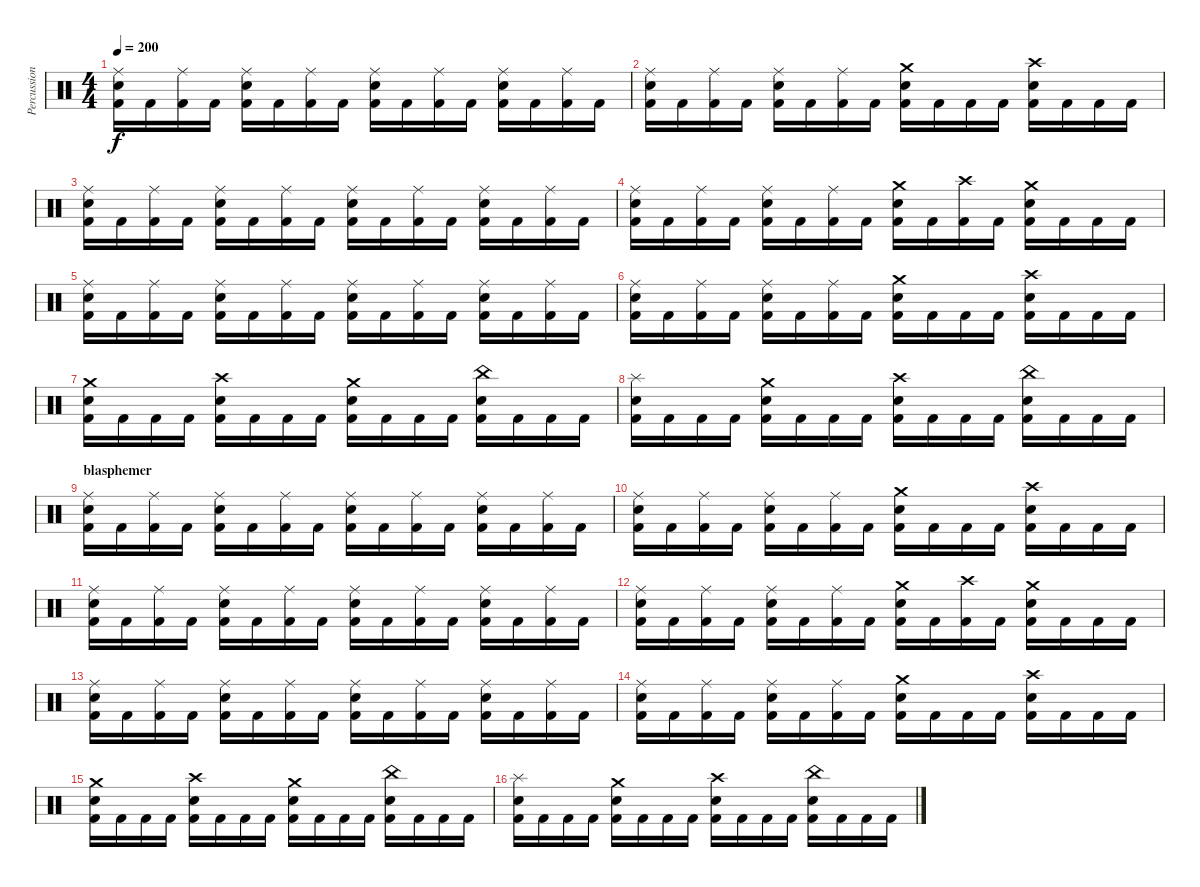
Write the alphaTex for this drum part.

\track ("Percussions" "Percussion") {instrument percussion}
\staff {score}
\articulation defaults
\ts (4 4)
\tempo 200
\clef neutral
\ks c
("Ride (middle)" "Electric Snare (hit)" "Kick (hit) 2").16{dy f} "Kick (hit) 2".16 ("Ride (middle)" "Kick (hit) 2").16 "Kick (hit) 2".16 ("Ride (middle)" "Electric Snare (hit)" "Kick (hit) 2").16 "Kick (hit) 2".16 ("Ride (middle)" "Kick (hit) 2").16 "Kick (hit) 2".16 ("Ride (middle)" "Electric Snare (hit)" "Kick (hit) 2").16 "Kick (hit) 2".16 ("Ride (middle)" "Kick (hit) 2").16 "Kick (hit) 2".16 ("Ride (middle)" "Electric Snare (hit)" "Kick (hit) 2").16 "Kick (hit) 2".16 ("Ride (middle)" "Kick (hit) 2").16 "Kick (hit) 2".16 |
("Ride (middle)" "Electric Snare (hit)" "Kick (hit) 2").16 "Kick (hit) 2".16 ("Ride (middle)" "Kick (hit) 2").16 "Kick (hit) 2".16 ("Ride (middle)" "Electric Snare (hit)" "Kick (hit) 2").16 "Kick (hit) 2".16 ("Ride (middle)" "Kick (hit) 2").16 "Kick (hit) 2".16 ("Crash medium (hit)" "Electric Snare (hit)" "Kick (hit) 2").16 "Kick (hit) 2".16 "Kick (hit) 2".16 "Kick (hit) 2".16 ("Crash high (hit)" "Electric Snare (hit)" "Kick (hit) 2").16 "Kick (hit) 2".16 "Kick (hit) 2".16 "Kick (hit) 2".16 |
("Ride (middle)" "Electric Snare (hit)" "Kick (hit) 2").16 "Kick (hit) 2".16 ("Ride (middle)" "Kick (hit) 2").16 "Kick (hit) 2".16 ("Ride (middle)" "Electric Snare (hit)" "Kick (hit) 2").16 "Kick (hit) 2".16 ("Ride (middle)" "Kick (hit) 2").16 "Kick (hit) 2".16 ("Ride (middle)" "Electric Snare (hit)" "Kick (hit) 2").16 "Kick (hit) 2".16 ("Ride (middle)" "Kick (hit) 2").16 "Kick (hit) 2".16 ("Ride (middle)" "Electric Snare (hit)" "Kick (hit) 2").16 "Kick (hit) 2".16 ("Ride (middle)" "Kick (hit) 2").16 "Kick (hit) 2".16 |
("Ride (middle)" "Electric Snare (hit)" "Kick (hit) 2").16 "Kick (hit) 2".16 ("Ride (middle)" "Kick (hit) 2").16 "Kick (hit) 2".16 ("Ride (middle)" "Electric Snare (hit)" "Kick (hit) 2").16 "Kick (hit) 2".16 ("Ride (middle)" "Kick (hit) 2").16 "Kick (hit) 2".16 ("Crash medium (hit)" "Electric Snare (hit)" "Kick (hit) 2").16 "Kick (hit) 2".16 ("Crash high (hit)" "Kick (hit) 2").16 "Kick (hit) 2".16 ("Crash medium (hit)" "Electric Snare (hit)" "Kick (hit) 2").16 "Kick (hit) 2".16 "Kick (hit) 2".16 "Kick (hit) 2".16 |
("Ride (middle)" "Electric Snare (hit)" "Kick (hit) 2").16 "Kick (hit) 2".16 ("Ride (middle)" "Kick (hit) 2").16 "Kick (hit) 2".16 ("Ride (middle)" "Electric Snare (hit)" "Kick (hit) 2").16 "Kick (hit) 2".16 ("Ride (middle)" "Kick (hit) 2").16 "Kick (hit) 2".16 ("Ride (middle)" "Electric Snare (hit)" "Kick (hit) 2").16 "Kick (hit) 2".16 ("Ride (middle)" "Kick (hit) 2").16 "Kick (hit) 2".16 ("Ride (middle)" "Electric Snare (hit)" "Kick (hit) 2").16 "Kick (hit) 2".16 ("Ride (middle)" "Kick (hit) 2").16 "Kick (hit) 2".16 |
("Ride (middle)" "Electric Snare (hit)" "Kick (hit) 2").16 "Kick (hit) 2".16 ("Ride (middle)" "Kick (hit) 2").16 "Kick (hit) 2".16 ("Ride (middle)" "Electric Snare (hit)" "Kick (hit) 2").16 "Kick (hit) 2".16 ("Ride (middle)" "Kick (hit) 2").16 "Kick (hit) 2".16 ("Crash medium (hit)" "Electric Snare (hit)" "Kick (hit) 2").16 "Kick (hit) 2".16 "Kick (hit) 2".16 "Kick (hit) 2".16 ("Crash high (hit)" "Electric Snare (hit)" "Kick (hit) 2").16 "Kick (hit) 2".16 "Kick (hit) 2".16 "Kick (hit) 2".16 |
("Crash medium (hit)" "Electric Snare (hit)" "Kick (hit) 2").16 "Kick (hit) 2".16 "Kick (hit) 2".16 "Kick (hit) 2".16 ("Crash high (hit)" "Electric Snare (hit)" "Kick (hit) 2").16 "Kick (hit) 2".16 "Kick (hit) 2".16 "Kick (hit) 2".16 ("Crash medium (hit)" "Electric Snare (hit)" "Kick (hit) 2").16 "Kick (hit) 2".16 "Kick (hit) 2".16 "Kick (hit) 2".16 ("China (hit)" "Electric Snare (hit)" "Kick (hit) 2").16 "Kick (hit) 2".16 "Kick (hit) 2".16 "Kick (hit) 2".16 |
("Splash (hit)" "Electric Snare (hit)" "Kick (hit) 2").16 "Kick (hit) 2".16 "Kick (hit) 2".16 "Kick (hit) 2".16 ("Crash medium (hit)" "Electric Snare (hit)" "Kick (hit) 2").16 "Kick (hit) 2".16 "Kick (hit) 2".16 "Kick (hit) 2".16 ("Crash high (hit)" "Electric Snare (hit)" "Kick (hit) 2").16 "Kick (hit) 2".16 "Kick (hit) 2".16 "Kick (hit) 2".16 ("China (hit)" "Electric Snare (hit)" "Kick (hit) 2").16 "Kick (hit) 2".16 "Kick (hit) 2".16 "Kick (hit) 2".16 |
\section ("" "blasphemer")
("Ride (middle)" "Electric Snare (hit)" "Kick (hit) 2").16 "Kick (hit) 2".16 ("Ride (middle)" "Kick (hit) 2").16 "Kick (hit) 2".16 ("Ride (middle)" "Electric Snare (hit)" "Kick (hit) 2").16 "Kick (hit) 2".16 ("Ride (middle)" "Kick (hit) 2").16 "Kick (hit) 2".16 ("Ride (middle)" "Electric Snare (hit)" "Kick (hit) 2").16 "Kick (hit) 2".16 ("Ride (middle)" "Kick (hit) 2").16 "Kick (hit) 2".16 ("Ride (middle)" "Electric Snare (hit)" "Kick (hit) 2").16 "Kick (hit) 2".16 ("Ride (middle)" "Kick (hit) 2").16 "Kick (hit) 2".16 |
("Ride (middle)" "Electric Snare (hit)" "Kick (hit) 2").16 "Kick (hit) 2".16 ("Ride (middle)" "Kick (hit) 2").16 "Kick (hit) 2".16 ("Ride (middle)" "Electric Snare (hit)" "Kick (hit) 2").16 "Kick (hit) 2".16 ("Ride (middle)" "Kick (hit) 2").16 "Kick (hit) 2".16 ("Crash medium (hit)" "Electric Snare (hit)" "Kick (hit) 2").16 "Kick (hit) 2".16 "Kick (hit) 2".16 "Kick (hit) 2".16 ("Crash high (hit)" "Electric Snare (hit)" "Kick (hit) 2").16 "Kick (hit) 2".16 "Kick (hit) 2".16 "Kick (hit) 2".16 |
("Ride (middle)" "Electric Snare (hit)" "Kick (hit) 2").16 "Kick (hit) 2".16 ("Ride (middle)" "Kick (hit) 2").16 "Kick (hit) 2".16 ("Ride (middle)" "Electric Snare (hit)" "Kick (hit) 2").16 "Kick (hit) 2".16 ("Ride (middle)" "Kick (hit) 2").16 "Kick (hit) 2".16 ("Ride (middle)" "Electric Snare (hit)" "Kick (hit) 2").16 "Kick (hit) 2".16 ("Ride (middle)" "Kick (hit) 2").16 "Kick (hit) 2".16 ("Ride (middle)" "Electric Snare (hit)" "Kick (hit) 2").16 "Kick (hit) 2".16 ("Ride (middle)" "Kick (hit) 2").16 "Kick (hit) 2".16 |
("Ride (middle)" "Electric Snare (hit)" "Kick (hit) 2").16 "Kick (hit) 2".16 ("Ride (middle)" "Kick (hit) 2").16 "Kick (hit) 2".16 ("Ride (middle)" "Electric Snare (hit)" "Kick (hit) 2").16 "Kick (hit) 2".16 ("Ride (middle)" "Kick (hit) 2").16 "Kick (hit) 2".16 ("Crash medium (hit)" "Electric Snare (hit)" "Kick (hit) 2").16 "Kick (hit) 2".16 ("Crash high (hit)" "Kick (hit) 2").16 "Kick (hit) 2".16 ("Crash medium (hit)" "Electric Snare (hit)" "Kick (hit) 2").16 "Kick (hit) 2".16 "Kick (hit) 2".16 "Kick (hit) 2".16 |
("Ride (middle)" "Electric Snare (hit)" "Kick (hit) 2").16 "Kick (hit) 2".16 ("Ride (middle)" "Kick (hit) 2").16 "Kick (hit) 2".16 ("Ride (middle)" "Electric Snare (hit)" "Kick (hit) 2").16 "Kick (hit) 2".16 ("Ride (middle)" "Kick (hit) 2").16 "Kick (hit) 2".16 ("Ride (middle)" "Electric Snare (hit)" "Kick (hit) 2").16 "Kick (hit) 2".16 ("Ride (middle)" "Kick (hit) 2").16 "Kick (hit) 2".16 ("Ride (middle)" "Electric Snare (hit)" "Kick (hit) 2").16 "Kick (hit) 2".16 ("Ride (middle)" "Kick (hit) 2").16 "Kick (hit) 2".16 |
("Ride (middle)" "Electric Snare (hit)" "Kick (hit) 2").16 "Kick (hit) 2".16 ("Ride (middle)" "Kick (hit) 2").16 "Kick (hit) 2".16 ("Ride (middle)" "Electric Snare (hit)" "Kick (hit) 2").16 "Kick (hit) 2".16 ("Ride (middle)" "Kick (hit) 2").16 "Kick (hit) 2".16 ("Crash medium (hit)" "Electric Snare (hit)" "Kick (hit) 2").16 "Kick (hit) 2".16 "Kick (hit) 2".16 "Kick (hit) 2".16 ("Crash high (hit)" "Electric Snare (hit)" "Kick (hit) 2").16 "Kick (hit) 2".16 "Kick (hit) 2".16 "Kick (hit) 2".16 |
("Crash medium (hit)" "Electric Snare (hit)" "Kick (hit) 2").16 "Kick (hit) 2".16 "Kick (hit) 2".16 "Kick (hit) 2".16 ("Crash high (hit)" "Electric Snare (hit)" "Kick (hit) 2").16 "Kick (hit) 2".16 "Kick (hit) 2".16 "Kick (hit) 2".16 ("Crash medium (hit)" "Electric Snare (hit)" "Kick (hit) 2").16 "Kick (hit) 2".16 "Kick (hit) 2".16 "Kick (hit) 2".16 ("China (hit)" "Electric Snare (hit)" "Kick (hit) 2").16 "Kick (hit) 2".16 "Kick (hit) 2".16 "Kick (hit) 2".16 |
("Splash (hit)" "Electric Snare (hit)" "Kick (hit) 2").16 "Kick (hit) 2".16 "Kick (hit) 2".16 "Kick (hit) 2".16 ("Crash medium (hit)" "Electric Snare (hit)" "Kick (hit) 2").16 "Kick (hit) 2".16 "Kick (hit) 2".16 "Kick (hit) 2".16 ("Crash high (hit)" "Electric Snare (hit)" "Kick (hit) 2").16 "Kick (hit) 2".16 "Kick (hit) 2".16 "Kick (hit) 2".16 ("China (hit)" "Electric Snare (hit)" "Kick (hit) 2").16 "Kick (hit) 2".16 "Kick (hit) 2".16 "Kick (hit) 2".16
